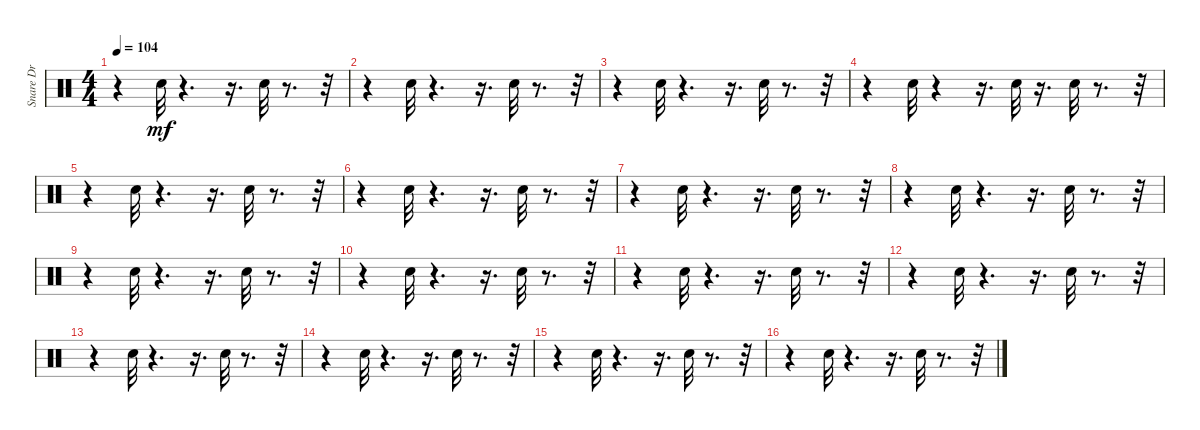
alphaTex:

\track ("  Snare Drum 1" "  Snare Dr") {instrument percussion}
\staff {score}
\articulation defaults
\ts (4 4)
\tempo 104
\clef neutral
\ks c
r.4{dy mf} "Snare (hit) 2".32 r.4{d} r.16{d} "Snare (hit) 2".32 r.8{d} r.32 |
r.4 "Snare (hit) 2".32 r.4{d} r.16{d} "Snare (hit) 2".32 r.8{d} r.32 |
r.4 "Snare (hit) 2".32 r.4{d} r.16{d} "Snare (hit) 2".32 r.8{d} r.32 |
r.4 "Snare (hit) 2".32 r.4 r.16{d} "Snare (hit) 2".32 r.16{d} "Snare (hit) 2".32 r.8{d} r.32 |
r.4 "Snare (hit) 2".32 r.4{d} r.16{d} "Snare (hit) 2".32 r.8{d} r.32 |
r.4 "Snare (hit) 2".32 r.4{d} r.16{d} "Snare (hit) 2".32 r.8{d} r.32 |
r.4 "Snare (hit) 2".32 r.4{d} r.16{d} "Snare (hit) 2".32 r.8{d} r.32 |
r.4 "Snare (hit) 2".32 r.4{d} r.16{d} "Snare (hit) 2".32 r.8{d} r.32 |
r.4 "Snare (hit) 2".32 r.4{d} r.16{d} "Snare (hit) 2".32 r.8{d} r.32 |
r.4 "Snare (hit) 2".32 r.4{d} r.16{d} "Snare (hit) 2".32 r.8{d} r.32 |
r.4 "Snare (hit) 2".32 r.4{d} r.16{d} "Snare (hit) 2".32 r.8{d} r.32 |
r.4 "Snare (hit) 2".32 r.4{d} r.16{d} "Snare (hit) 2".32 r.8{d} r.32 |
r.4 "Snare (hit) 2".32 r.4{d} r.16{d} "Snare (hit) 2".32 r.8{d} r.32 |
r.4 "Snare (hit) 2".32 r.4{d} r.16{d} "Snare (hit) 2".32 r.8{d} r.32 |
r.4 "Snare (hit) 2".32 r.4{d} r.16{d} "Snare (hit) 2".32 r.8{d} r.32 |
r.4 "Snare (hit) 2".32 r.4{d} r.16{d} "Snare (hit) 2".32 r.8{d} r.32
